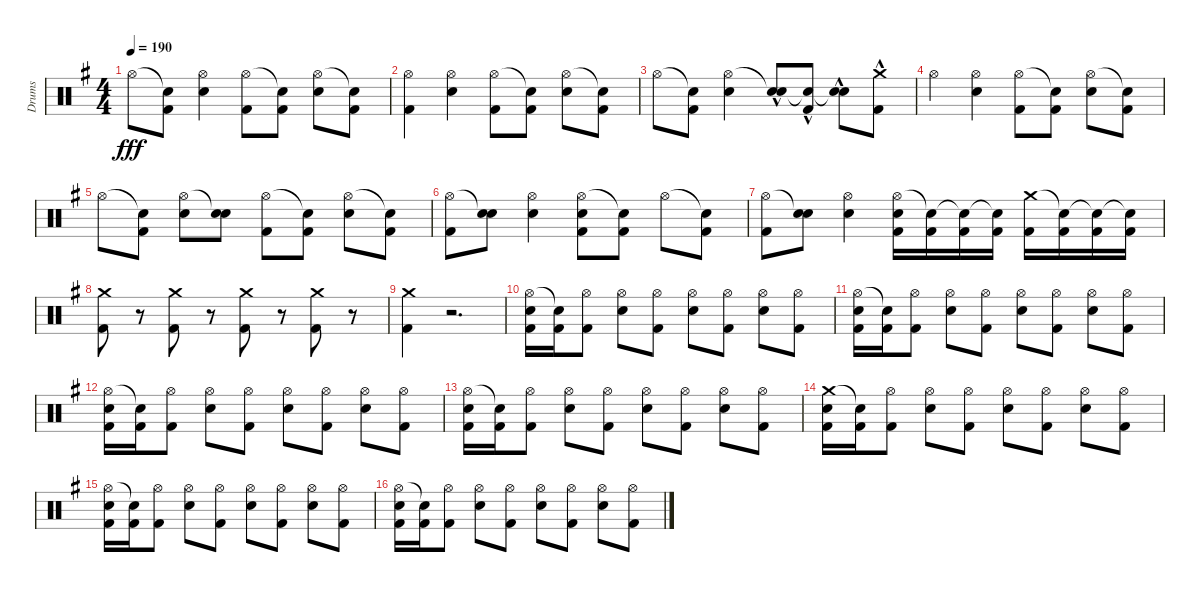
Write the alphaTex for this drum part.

\track ("Drums" "Drums") {instrument percussion}
\staff {score}
\articulation defaults
\ts (4 4)
\tempo 190
\clef neutral
\ks eminor "Hi-Hat (open)".8{dy fff}
("Snare (hit)"{t} "Kick (hit) 2").8 ("Hi-Hat (open)" "Electric Snare (hit)").4 ("Hi-Hat (open)" "Kick (hit) 2").8 ("Snare (hit)"{t} "Kick (hit) 2").8 ("Hi-Hat (open)" "Electric Snare (hit)").8 ("Snare (hit)"{t} "Kick (hit) 2").8 |
("Hi-Hat (open)" "Kick (hit) 2").4 ("Hi-Hat (open)" "Electric Snare (hit)").4 ("Hi-Hat (open)" "Kick (hit) 2").8 ("Snare (hit)"{t} "Kick (hit) 2").8 ("Hi-Hat (open)" "Electric Snare (hit)").8 ("Snare (hit)"{t} "Kick (hit) 2").8 |
"Hi-Hat (open)".8 ("Snare (hit)"{t} "Kick (hit) 2").8 ("Hi-Hat (open)" "Electric Snare (hit)").4 ("Snare (hit)"{t} "Electric Snare (hit)"{hac}).8 ("Snare (hit)"{t} "Kick (hit) 2"{hac}).8 ("Snare (hit)"{t} "Electric Snare (hit)"{hac}).8 ("Crash medium (hit)" "Kick (hit) 2"{hac}).8 |
"Hi-Hat (open)".4 ("Hi-Hat (open)" "Electric Snare (hit)").4 ("Hi-Hat (open)" "Kick (hit) 2").8 ("Snare (hit)"{t} "Kick (hit) 2").8 ("Hi-Hat (open)" "Electric Snare (hit)").8 ("Snare (hit)"{t} "Kick (hit) 2").8 |
"Hi-Hat (open)".8 ("Snare (hit)"{t} "Kick (hit) 2").8 ("Hi-Hat (open)" "Electric Snare (hit)").8 ("Snare (hit)"{t} "Electric Snare (hit)").8 ("Hi-Hat (open)" "Kick (hit) 2").8 ("Snare (hit)"{t} "Kick (hit) 2").8 ("Hi-Hat (open)" "Electric Snare (hit)").8 ("Snare (hit)"{t} "Kick (hit) 2").8 |
("Hi-Hat (open)" "Kick (hit) 2").8 ("Snare (hit)"{t} "Electric Snare (hit)").8 ("Hi-Hat (open)" "Electric Snare (hit)").4 ("Hi-Hat (open)" "Electric Snare (hit)" "Kick (hit) 2").8 ("Snare (hit)"{t} "Kick (hit) 2").8 "Hi-Hat (open)".8 ("Snare (hit)"{t} "Kick (hit) 2").8 |
("Hi-Hat (open)" "Kick (hit) 2").8 ("Snare (hit)"{t} "Electric Snare (hit)").8 ("Hi-Hat (open)" "Electric Snare (hit)").4 ("Hi-Hat (open)" "Electric Snare (hit)" "Kick (hit) 2").16 ("Snare (hit)"{t} "Kick (hit) 2").16 ("Snare (hit)"{t} "Kick (hit) 2").16 ("Snare (hit)"{t} "Kick (hit) 2").16 ("Crash medium (hit)" "Kick (hit) 2").16 ("Snare (hit)"{t} "Kick (hit) 2").16 ("Snare (hit)"{t} "Kick (hit) 2").16 ("Snare (hit)"{t} "Kick (hit) 2").16 |
("Crash medium (hit)" "Kick (hit) 2").8 r.8{volume 0} ("Crash medium (hit)" "Kick (hit) 2").8{volume 16} r.8{volume 0} ("Crash medium (hit)" "Kick (hit) 2").8{volume 16} r.8{volume 0} ("Crash medium (hit)" "Kick (hit) 2").8{volume 16} r.8{volume 0} |
("Crash medium (hit)" "Kick (hit) 2").4{volume 16} r.2{d volume 0} |
("Hi-Hat (open)" "Electric Snare (hit)" "Kick (hit) 2").16{volume 16} ("Snare (hit)"{t} "Kick (hit) 2").16 ("Hi-Hat (open)" "Kick (hit) 2").8 ("Hi-Hat (open)" "Electric Snare (hit)").8 ("Hi-Hat (open)" "Kick (hit) 2").8 ("Hi-Hat (open)" "Electric Snare (hit)").8 ("Hi-Hat (open)" "Kick (hit) 2").8 ("Hi-Hat (open)" "Electric Snare (hit)").8 ("Hi-Hat (open)" "Kick (hit) 2").8 |
("Hi-Hat (open)" "Electric Snare (hit)" "Kick (hit) 2").16 ("Snare (hit)"{t} "Kick (hit) 2").16 ("Hi-Hat (open)" "Kick (hit) 2").8 ("Hi-Hat (open)" "Electric Snare (hit)").8 ("Hi-Hat (open)" "Kick (hit) 2").8 ("Hi-Hat (open)" "Electric Snare (hit)").8 ("Hi-Hat (open)" "Kick (hit) 2").8 ("Hi-Hat (open)" "Electric Snare (hit)").8 ("Hi-Hat (open)" "Kick (hit) 2").8 |
("Hi-Hat (open)" "Electric Snare (hit)" "Kick (hit) 2").16 ("Snare (hit)"{t} "Kick (hit) 2").16 ("Hi-Hat (open)" "Kick (hit) 2").8 ("Hi-Hat (open)" "Electric Snare (hit)").8 ("Hi-Hat (open)" "Kick (hit) 2").8 ("Hi-Hat (open)" "Electric Snare (hit)").8 ("Hi-Hat (open)" "Kick (hit) 2").8 ("Hi-Hat (open)" "Electric Snare (hit)").8 ("Hi-Hat (open)" "Kick (hit) 2").8 |
("Hi-Hat (open)" "Electric Snare (hit)" "Kick (hit) 2").16 ("Snare (hit)"{t} "Kick (hit) 2").16 ("Hi-Hat (open)" "Kick (hit) 2").8 ("Hi-Hat (open)" "Electric Snare (hit)").8 ("Hi-Hat (open)" "Kick (hit) 2").8 ("Hi-Hat (open)" "Electric Snare (hit)").8 ("Hi-Hat (open)" "Kick (hit) 2").8 ("Hi-Hat (open)" "Electric Snare (hit)").8 ("Hi-Hat (open)" "Kick (hit) 2").8 |
("Crash medium (hit)" "Electric Snare (hit)" "Kick (hit) 2").16 ("Snare (hit)"{t} "Kick (hit) 2").16 ("Hi-Hat (open)" "Kick (hit) 2").8 ("Hi-Hat (open)" "Electric Snare (hit)").8 ("Hi-Hat (open)" "Kick (hit) 2").8 ("Hi-Hat (open)" "Electric Snare (hit)").8 ("Hi-Hat (open)" "Kick (hit) 2").8 ("Hi-Hat (open)" "Electric Snare (hit)").8 ("Hi-Hat (open)" "Kick (hit) 2").8 |
("Hi-Hat (open)" "Electric Snare (hit)" "Kick (hit) 2").16 ("Snare (hit)"{t} "Kick (hit) 2").16 ("Hi-Hat (open)" "Kick (hit) 2").8 ("Hi-Hat (open)" "Electric Snare (hit)").8 ("Hi-Hat (open)" "Kick (hit) 2").8 ("Hi-Hat (open)" "Electric Snare (hit)").8 ("Hi-Hat (open)" "Kick (hit) 2").8 ("Hi-Hat (open)" "Electric Snare (hit)").8 ("Hi-Hat (open)" "Kick (hit) 2").8 |
("Hi-Hat (open)" "Electric Snare (hit)" "Kick (hit) 2").16 ("Snare (hit)"{t} "Kick (hit) 2").16 ("Hi-Hat (open)" "Kick (hit) 2").8 ("Hi-Hat (open)" "Electric Snare (hit)").8 ("Hi-Hat (open)" "Kick (hit) 2").8 ("Hi-Hat (open)" "Electric Snare (hit)").8 ("Hi-Hat (open)" "Kick (hit) 2").8 ("Hi-Hat (open)" "Electric Snare (hit)").8 ("Hi-Hat (open)" "Kick (hit) 2").8
